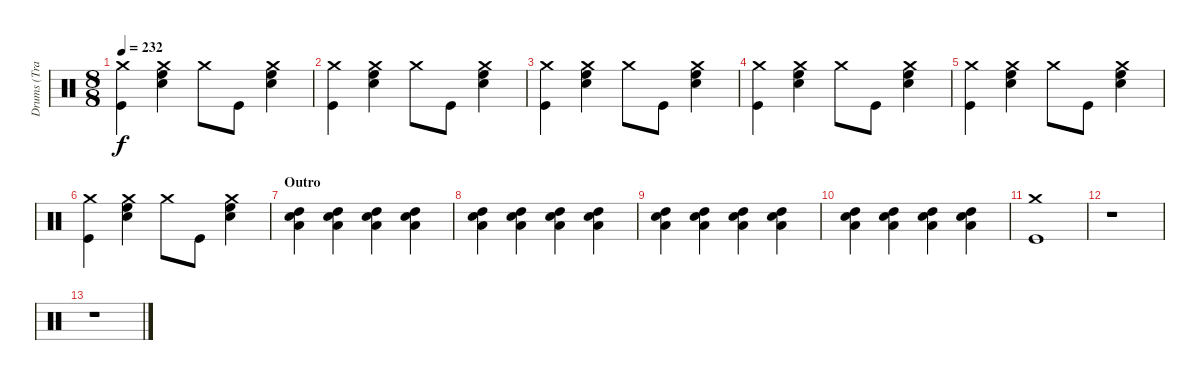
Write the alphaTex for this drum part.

\track ("Drums (Travis)" "Drums (Tra") {instrument percussion}
\staff {score}
\articulation defaults
\ts (8 8)
\tempo 232
\clef neutral
\ks c
("Crash medium (hit)" "Kick (hit)").4{dy f} ("High Floor Tom (hit)" "Electric Snare (hit)" "Crash medium (hit)").4 "Crash medium (hit)".8 "Kick (hit)".8 ("Electric Snare (hit)" "High Floor Tom (hit)" "Crash medium (hit)").4 |
("Crash medium (hit)" "Kick (hit)").4 ("High Floor Tom (hit)" "Electric Snare (hit)" "Crash medium (hit)").4 "Crash medium (hit)".8 "Kick (hit)".8 ("Electric Snare (hit)" "High Floor Tom (hit)" "Crash medium (hit)").4 |
("Crash medium (hit)" "Kick (hit)").4 ("High Floor Tom (hit)" "Electric Snare (hit)" "Crash medium (hit)").4 "Crash medium (hit)".8 "Kick (hit)".8 ("Electric Snare (hit)" "High Floor Tom (hit)" "Crash medium (hit)").4 |
("Crash medium (hit)" "Kick (hit)").4 ("High Floor Tom (hit)" "Electric Snare (hit)" "Crash medium (hit)").4 "Crash medium (hit)".8 "Kick (hit)".8 ("Electric Snare (hit)" "High Floor Tom (hit)" "Crash medium (hit)").4 |
("Crash medium (hit)" "Kick (hit)").4 ("High Floor Tom (hit)" "Electric Snare (hit)" "Crash medium (hit)").4 "Crash medium (hit)".8 "Kick (hit)".8 ("Electric Snare (hit)" "High Floor Tom (hit)" "Crash medium (hit)").4 |
("Crash medium (hit)" "Kick (hit)").4 ("High Floor Tom (hit)" "Electric Snare (hit)" "Crash medium (hit)").4 "Crash medium (hit)".8 "Kick (hit)".8 ("Electric Snare (hit)" "High Floor Tom (hit)" "Crash medium (hit)").4 |
\section ("" "Outro")
("High Tom (hit)" "Low Tom (hit)" "Electric Snare (hit)").4 ("High Tom (hit)" "Low Tom (hit)" "Electric Snare (hit)").4 ("High Tom (hit)" "Low Tom (hit)" "Electric Snare (hit)").4 ("High Tom (hit)" "Low Tom (hit)" "Electric Snare (hit)").4 |
("High Tom (hit)" "Low Tom (hit)" "Electric Snare (hit)").4 ("High Tom (hit)" "Low Tom (hit)" "Electric Snare (hit)").4 ("High Tom (hit)" "Low Tom (hit)" "Electric Snare (hit)").4 ("High Tom (hit)" "Low Tom (hit)" "Electric Snare (hit)").4 |
("High Tom (hit)" "Low Tom (hit)" "Electric Snare (hit)").4 ("High Tom (hit)" "Low Tom (hit)" "Electric Snare (hit)").4 ("High Tom (hit)" "Low Tom (hit)" "Electric Snare (hit)").4 ("High Tom (hit)" "Low Tom (hit)" "Electric Snare (hit)").4 |
("High Tom (hit)" "Low Tom (hit)" "Electric Snare (hit)").4 ("High Tom (hit)" "Low Tom (hit)" "Electric Snare (hit)").4 ("High Tom (hit)" "Low Tom (hit)" "Electric Snare (hit)").4 ("High Tom (hit)" "Low Tom (hit)" "Electric Snare (hit)").4 |
("Kick (hit)" "Crash medium (hit)").1 |
r.1 |
r.1
